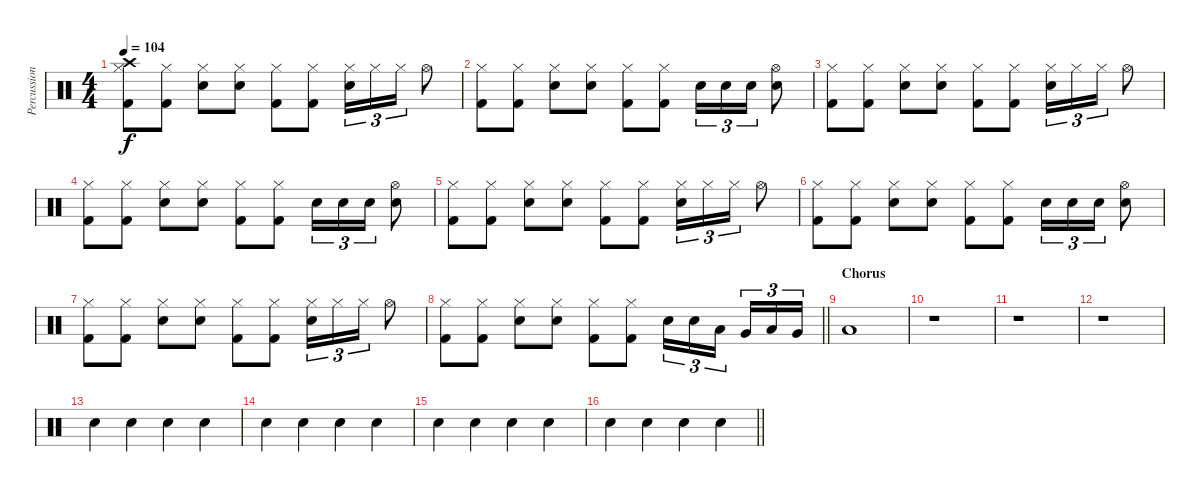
\track ("Percussion" "Percussion") {instrument percussion}
\staff {score}
\articulation defaults
\ts (4 4)
\tempo 104
\clef neutral
\ks c
("Crash high (hit)" "Hi-Hat (closed)" "Kick (hit) 2").8{dy f} ("Hi-Hat (closed)" "Kick (hit) 2").8 ("Hi-Hat (closed)" "Snare (hit) 2").8 ("Hi-Hat (closed)" "Snare (hit) 2").8 ("Hi-Hat (closed)" "Kick (hit) 2").8 ("Hi-Hat (closed)" "Kick (hit) 2").8 ("Hi-Hat (closed)" "Snare (hit) 2").16{tu (3 2)} "Hi-Hat (closed)".16{tu (3 2)} "Hi-Hat (closed)".16{tu (3 2)} "Hi-Hat (open)".8 |
("Hi-Hat (closed)" "Kick (hit) 2").8 ("Hi-Hat (closed)" "Kick (hit) 2").8 ("Hi-Hat (closed)" "Snare (hit) 2").8 ("Hi-Hat (closed)" "Snare (hit) 2").8 ("Hi-Hat (closed)" "Kick (hit) 2").8 ("Hi-Hat (closed)" "Kick (hit) 2").8 "Snare (hit) 2".16{tu (3 2)} "Snare (hit) 2".16{tu (3 2)} "Snare (hit) 2".16{tu (3 2)} ("Hi-Hat (open)" "Snare (hit) 2").8 |
("Hi-Hat (closed)" "Kick (hit) 2").8 ("Hi-Hat (closed)" "Kick (hit) 2").8 ("Hi-Hat (closed)" "Snare (hit) 2").8 ("Hi-Hat (closed)" "Snare (hit) 2").8 ("Hi-Hat (closed)" "Kick (hit) 2").8 ("Hi-Hat (closed)" "Kick (hit) 2").8 ("Hi-Hat (closed)" "Snare (hit) 2").16{tu (3 2)} "Hi-Hat (closed)".16{tu (3 2)} "Hi-Hat (closed)".16{tu (3 2)} "Hi-Hat (open)".8 |
("Hi-Hat (closed)" "Kick (hit) 2").8 ("Hi-Hat (closed)" "Kick (hit) 2").8 ("Hi-Hat (closed)" "Snare (hit) 2").8 ("Hi-Hat (closed)" "Snare (hit) 2").8 ("Hi-Hat (closed)" "Kick (hit) 2").8 ("Hi-Hat (closed)" "Kick (hit) 2").8 "Snare (hit) 2".16{tu (3 2)} "Snare (hit) 2".16{tu (3 2)} "Snare (hit) 2".16{tu (3 2)} ("Hi-Hat (open)" "Snare (hit) 2").8 |
("Hi-Hat (closed)" "Kick (hit) 2").8 ("Hi-Hat (closed)" "Kick (hit) 2").8 ("Hi-Hat (closed)" "Snare (hit) 2").8 ("Hi-Hat (closed)" "Snare (hit) 2").8 ("Hi-Hat (closed)" "Kick (hit) 2").8 ("Hi-Hat (closed)" "Kick (hit) 2").8 ("Hi-Hat (closed)" "Snare (hit) 2").16{tu (3 2)} "Hi-Hat (closed)".16{tu (3 2)} "Hi-Hat (closed)".16{tu (3 2)} "Hi-Hat (open)".8 |
("Hi-Hat (closed)" "Kick (hit) 2").8 ("Hi-Hat (closed)" "Kick (hit) 2").8 ("Hi-Hat (closed)" "Snare (hit) 2").8 ("Hi-Hat (closed)" "Snare (hit) 2").8 ("Hi-Hat (closed)" "Kick (hit) 2").8 ("Hi-Hat (closed)" "Kick (hit) 2").8 "Snare (hit) 2".16{tu (3 2)} "Snare (hit) 2".16{tu (3 2)} "Snare (hit) 2".16{tu (3 2)} ("Hi-Hat (open)" "Snare (hit) 2").8 |
("Hi-Hat (closed)" "Kick (hit) 2").8 ("Hi-Hat (closed)" "Kick (hit) 2").8 ("Hi-Hat (closed)" "Snare (hit) 2").8 ("Hi-Hat (closed)" "Snare (hit) 2").8 ("Hi-Hat (closed)" "Kick (hit) 2").8 ("Hi-Hat (closed)" "Kick (hit) 2").8 ("Hi-Hat (closed)" "Snare (hit) 2").16{tu (3 2)} "Hi-Hat (closed)".16{tu (3 2)} "Hi-Hat (closed)".16{tu (3 2)} "Hi-Hat (open)".8 |
\barLineRight lightlight
("Hi-Hat (closed)" "Kick (hit) 2").8 ("Hi-Hat (closed)" "Kick (hit) 2").8 ("Hi-Hat (closed)" "Snare (hit) 2").8 ("Hi-Hat (closed)" "Snare (hit) 2").8 ("Hi-Hat (closed)" "Kick (hit) 2").8 ("Hi-Hat (closed)" "Kick (hit) 2").8 "Snare (hit) 2".16{tu (3 2)} "Snare (hit) 2".16{tu (3 2)} "Low Tom (hit)".16{tu (3 2) beam splitsecondary} "Very Low Tom (hit)".16{tu (3 2)} "Low Tom (hit)".16{tu (3 2)} "Very Low Tom (hit)".16{tu (3 2)} |
\section ("" "Chorus")
"Low Floor Tom (hit)".1 |
r.1 |
r.1 |
r.1 |
"Snare (hit) 2".4 "Snare (hit) 2".4 "Snare (hit) 2".4 "Snare (hit) 2".4 |
"Snare (hit) 2".4 "Snare (hit) 2".4 "Snare (hit) 2".4 "Snare (hit) 2".4 |
"Snare (hit) 2".4 "Snare (hit) 2".4 "Snare (hit) 2".4 "Snare (hit) 2".4 |
\barLineRight lightlight "Snare (hit) 2".4 "Snare (hit) 2".4 "Snare (hit) 2".4 "Snare (hit) 2".4
